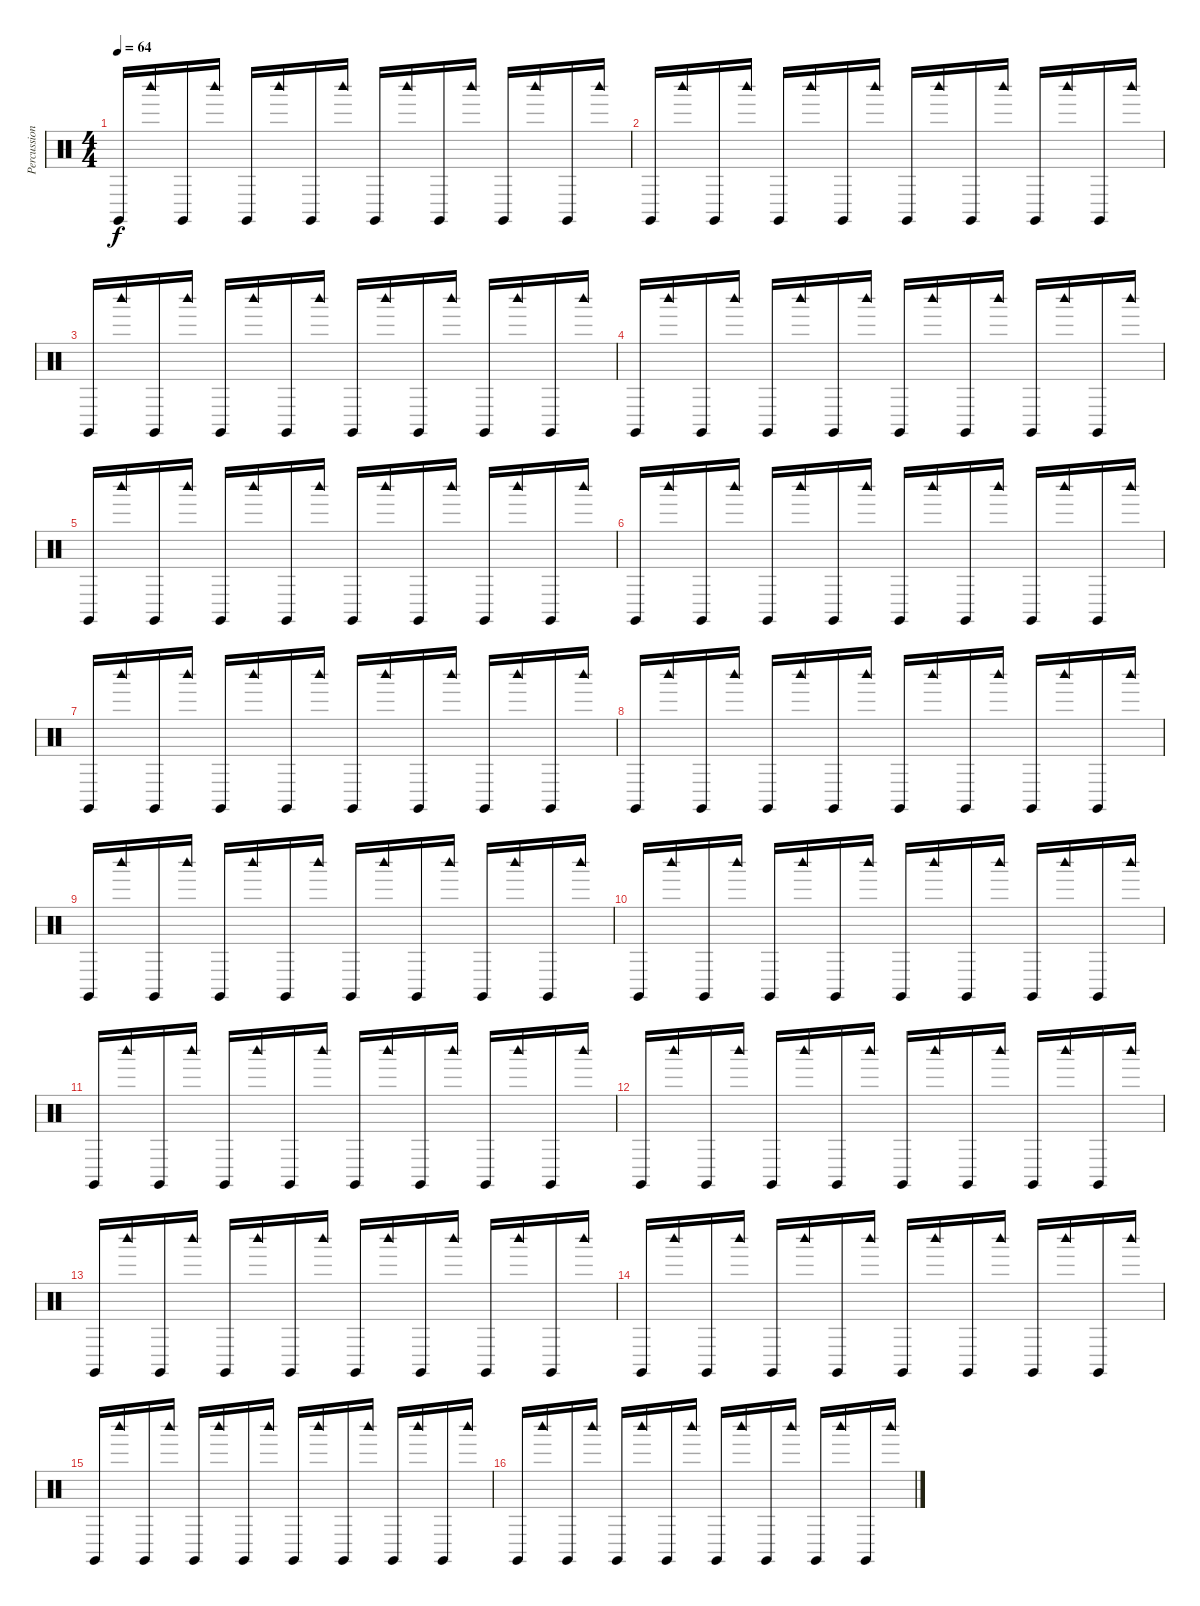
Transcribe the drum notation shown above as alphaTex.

\track ("Percussions" "Percussion") {instrument percussion}
\staff {score}
\articulation defaults
\ts (4 4)
\tempo 64
\clef neutral
\ks c "Claves (hit)".16{dy f} "Woodblock high (hit)".16 "Claves (hit)".16 "Woodblock high (hit)".16 "Claves (hit)".16 "Woodblock high (hit)".16 "Claves (hit)".16 "Woodblock high (hit)".16 "Claves (hit)".16 "Woodblock high (hit)".16 "Claves (hit)".16 "Woodblock high (hit)".16 "Claves (hit)".16 "Woodblock high (hit)".16 "Claves (hit)".16 "Woodblock high (hit)".16
|
"Claves (hit)".16 "Woodblock high (hit)".16 "Claves (hit)".16 "Woodblock high (hit)".16 "Claves (hit)".16 "Woodblock high (hit)".16 "Claves (hit)".16 "Woodblock high (hit)".16 "Claves (hit)".16 "Woodblock high (hit)".16 "Claves (hit)".16 "Woodblock high (hit)".16 "Claves (hit)".16 "Woodblock high (hit)".16 "Claves (hit)".16 "Woodblock high (hit)".16 |
"Claves (hit)".16 "Woodblock high (hit)".16 "Claves (hit)".16 "Woodblock high (hit)".16 "Claves (hit)".16 "Woodblock high (hit)".16 "Claves (hit)".16 "Woodblock high (hit)".16 "Claves (hit)".16 "Woodblock high (hit)".16 "Claves (hit)".16 "Woodblock high (hit)".16 "Claves (hit)".16 "Woodblock high (hit)".16 "Claves (hit)".16 "Woodblock high (hit)".16 |
"Claves (hit)".16 "Woodblock high (hit)".16 "Claves (hit)".16 "Woodblock high (hit)".16 "Claves (hit)".16 "Woodblock high (hit)".16 "Claves (hit)".16 "Woodblock high (hit)".16 "Claves (hit)".16 "Woodblock high (hit)".16 "Claves (hit)".16 "Woodblock high (hit)".16 "Claves (hit)".16 "Woodblock high (hit)".16 "Claves (hit)".16 "Woodblock high (hit)".16 |
"Claves (hit)".16{volume 2} "Woodblock high (hit)".16 "Claves (hit)".16 "Woodblock high (hit)".16 "Claves (hit)".16 "Woodblock high (hit)".16 "Claves (hit)".16 "Woodblock high (hit)".16 "Claves (hit)".16 "Woodblock high (hit)".16 "Claves (hit)".16 "Woodblock high (hit)".16 "Claves (hit)".16 "Woodblock high (hit)".16 "Claves (hit)".16 "Woodblock high (hit)".16 |
"Claves (hit)".16 "Woodblock high (hit)".16 "Claves (hit)".16 "Woodblock high (hit)".16 "Claves (hit)".16 "Woodblock high (hit)".16 "Claves (hit)".16 "Woodblock high (hit)".16 "Claves (hit)".16 "Woodblock high (hit)".16 "Claves (hit)".16 "Woodblock high (hit)".16 "Claves (hit)".16 "Woodblock high (hit)".16 "Claves (hit)".16 "Woodblock high (hit)".16 |
"Claves (hit)".16 "Woodblock high (hit)".16 "Claves (hit)".16 "Woodblock high (hit)".16 "Claves (hit)".16 "Woodblock high (hit)".16 "Claves (hit)".16 "Woodblock high (hit)".16 "Claves (hit)".16 "Woodblock high (hit)".16 "Claves (hit)".16 "Woodblock high (hit)".16 "Claves (hit)".16 "Woodblock high (hit)".16 "Claves (hit)".16 "Woodblock high (hit)".16 |
"Claves (hit)".16 "Woodblock high (hit)".16 "Claves (hit)".16 "Woodblock high (hit)".16 "Claves (hit)".16 "Woodblock high (hit)".16 "Claves (hit)".16 "Woodblock high (hit)".16 "Claves (hit)".16 "Woodblock high (hit)".16 "Claves (hit)".16 "Woodblock high (hit)".16 "Claves (hit)".16 "Woodblock high (hit)".16 "Claves (hit)".16 "Woodblock high (hit)".16 |
"Claves (hit)".16 "Woodblock high (hit)".16 "Claves (hit)".16 "Woodblock high (hit)".16 "Claves (hit)".16 "Woodblock high (hit)".16 "Claves (hit)".16 "Woodblock high (hit)".16 "Claves (hit)".16 "Woodblock high (hit)".16 "Claves (hit)".16 "Woodblock high (hit)".16 "Claves (hit)".16 "Woodblock high (hit)".16 "Claves (hit)".16 "Woodblock high (hit)".16 |
"Claves (hit)".16 "Woodblock high (hit)".16 "Claves (hit)".16 "Woodblock high (hit)".16 "Claves (hit)".16 "Woodblock high (hit)".16 "Claves (hit)".16 "Woodblock high (hit)".16 "Claves (hit)".16 "Woodblock high (hit)".16 "Claves (hit)".16 "Woodblock high (hit)".16 "Claves (hit)".16 "Woodblock high (hit)".16 "Claves (hit)".16 "Woodblock high (hit)".16 |
"Claves (hit)".16 "Woodblock high (hit)".16 "Claves (hit)".16 "Woodblock high (hit)".16 "Claves (hit)".16 "Woodblock high (hit)".16 "Claves (hit)".16 "Woodblock high (hit)".16 "Claves (hit)".16 "Woodblock high (hit)".16 "Claves (hit)".16 "Woodblock high (hit)".16 "Claves (hit)".16 "Woodblock high (hit)".16 "Claves (hit)".16 "Woodblock high (hit)".16 |
"Claves (hit)".16 "Woodblock high (hit)".16 "Claves (hit)".16 "Woodblock high (hit)".16 "Claves (hit)".16 "Woodblock high (hit)".16 "Claves (hit)".16 "Woodblock high (hit)".16 "Claves (hit)".16 "Woodblock high (hit)".16 "Claves (hit)".16 "Woodblock high (hit)".16 "Claves (hit)".16 "Woodblock high (hit)".16 "Claves (hit)".16 "Woodblock high (hit)".16 |
"Claves (hit)".16 "Woodblock high (hit)".16 "Claves (hit)".16 "Woodblock high (hit)".16 "Claves (hit)".16 "Woodblock high (hit)".16 "Claves (hit)".16 "Woodblock high (hit)".16 "Claves (hit)".16 "Woodblock high (hit)".16 "Claves (hit)".16 "Woodblock high (hit)".16 "Claves (hit)".16 "Woodblock high (hit)".16 "Claves (hit)".16 "Woodblock high (hit)".16 |
"Claves (hit)".16 "Woodblock high (hit)".16 "Claves (hit)".16 "Woodblock high (hit)".16 "Claves (hit)".16 "Woodblock high (hit)".16 "Claves (hit)".16 "Woodblock high (hit)".16 "Claves (hit)".16 "Woodblock high (hit)".16 "Claves (hit)".16 "Woodblock high (hit)".16 "Claves (hit)".16 "Woodblock high (hit)".16 "Claves (hit)".16 "Woodblock high (hit)".16 |
"Claves (hit)".16 "Woodblock high (hit)".16 "Claves (hit)".16 "Woodblock high (hit)".16 "Claves (hit)".16 "Woodblock high (hit)".16 "Claves (hit)".16 "Woodblock high (hit)".16 "Claves (hit)".16 "Woodblock high (hit)".16 "Claves (hit)".16 "Woodblock high (hit)".16 "Claves (hit)".16 "Woodblock high (hit)".16 "Claves (hit)".16 "Woodblock high (hit)".16 |
"Claves (hit)".16 "Woodblock high (hit)".16 "Claves (hit)".16 "Woodblock high (hit)".16 "Claves (hit)".16 "Woodblock high (hit)".16 "Claves (hit)".16 "Woodblock high (hit)".16 "Claves (hit)".16 "Woodblock high (hit)".16 "Claves (hit)".16 "Woodblock high (hit)".16 "Claves (hit)".16 "Woodblock high (hit)".16 "Claves (hit)".16 "Woodblock high (hit)".16
